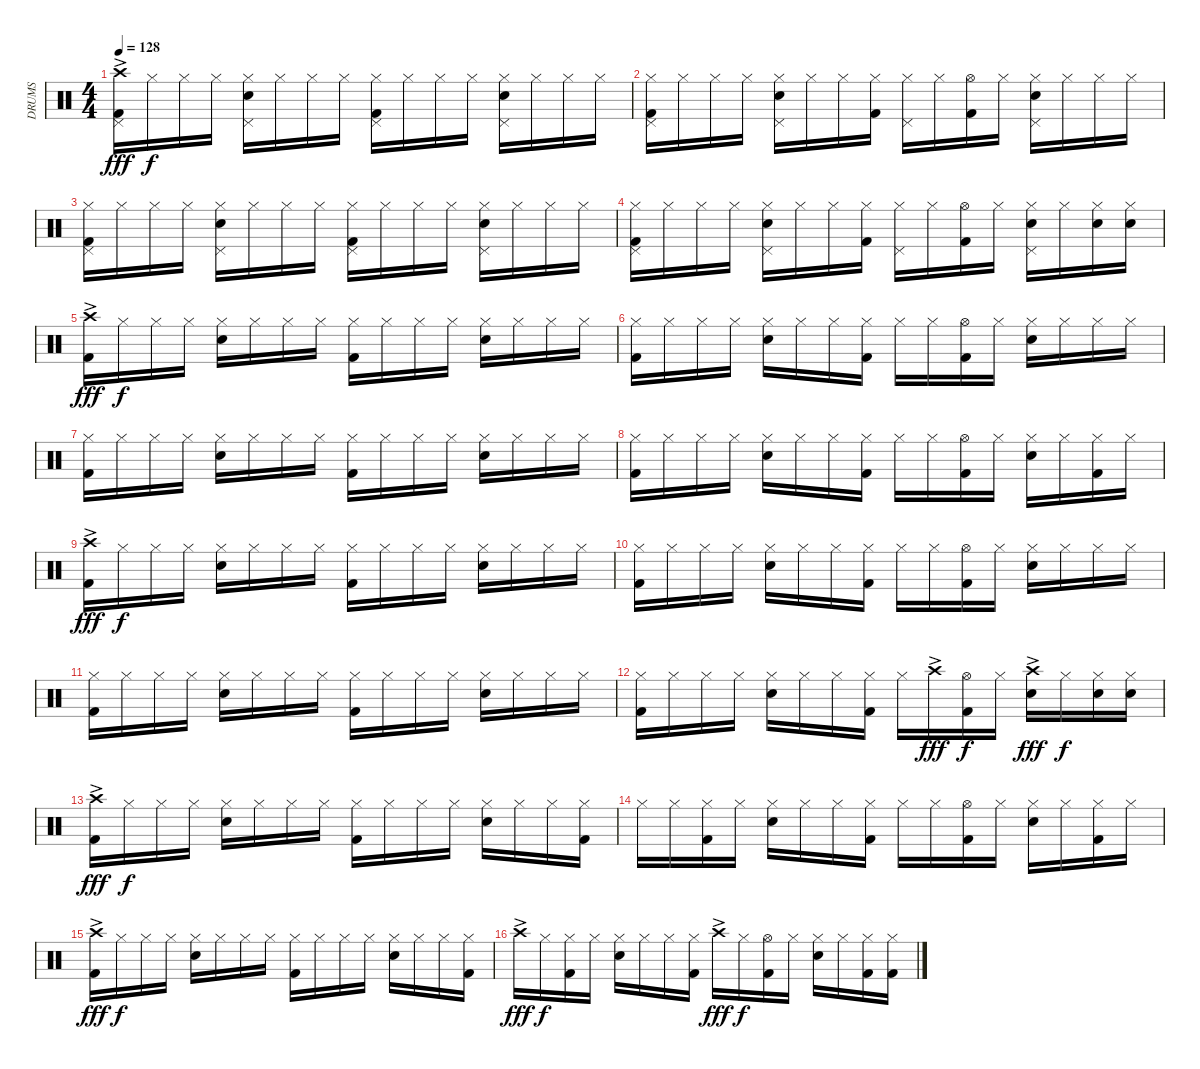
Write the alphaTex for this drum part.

\track ("DRUMS" "DRUMS") {instrument percussion}
\staff {score}
\articulation defaults
\ts (4 4)
\tempo 128
\clef neutral
\ks c
("Crash high (hit)"{ac} "Pedal Hi-Hat (hit)" "Kick (hit) 2").16{dy fff} "Hi-Hat (closed)".16{dy f} "Hi-Hat (closed)".16 "Hi-Hat (closed)".16 ("Hi-Hat (closed)" "Pedal Hi-Hat (hit)" "Snare (hit) 2").16 "Hi-Hat (closed)".16 "Hi-Hat (closed)".16 "Hi-Hat (closed)".16 ("Hi-Hat (closed)" "Pedal Hi-Hat (hit)" "Kick (hit) 2").16 "Hi-Hat (closed)".16 "Hi-Hat (closed)".16 "Hi-Hat (closed)".16 ("Hi-Hat (closed)" "Pedal Hi-Hat (hit)" "Snare (hit) 2").16 "Hi-Hat (closed)".16 "Hi-Hat (closed)".16 "Hi-Hat (closed)".16 |
("Hi-Hat (closed)" "Pedal Hi-Hat (hit)" "Kick (hit) 2").16 "Hi-Hat (closed)".16 "Hi-Hat (closed)".16 "Hi-Hat (closed)".16 ("Hi-Hat (closed)" "Pedal Hi-Hat (hit)" "Snare (hit) 2").16 "Hi-Hat (closed)".16 "Hi-Hat (closed)".16 ("Hi-Hat (closed)" "Kick (hit) 2").16 ("Hi-Hat (closed)" "Pedal Hi-Hat (hit)").16 "Hi-Hat (closed)".16 ("Hi-Hat (open)" "Kick (hit) 2").16 "Hi-Hat (closed)".16 ("Hi-Hat (closed)" "Pedal Hi-Hat (hit)" "Snare (hit) 2").16 "Hi-Hat (closed)".16 "Hi-Hat (closed)".16 "Hi-Hat (closed)".16 |
("Hi-Hat (closed)" "Pedal Hi-Hat (hit)" "Kick (hit) 2").16 "Hi-Hat (closed)".16 "Hi-Hat (closed)".16 "Hi-Hat (closed)".16 ("Hi-Hat (closed)" "Pedal Hi-Hat (hit)" "Snare (hit) 2").16 "Hi-Hat (closed)".16 "Hi-Hat (closed)".16 "Hi-Hat (closed)".16 ("Hi-Hat (closed)" "Pedal Hi-Hat (hit)" "Kick (hit) 2").16 "Hi-Hat (closed)".16 "Hi-Hat (closed)".16 "Hi-Hat (closed)".16 ("Hi-Hat (closed)" "Pedal Hi-Hat (hit)" "Snare (hit) 2").16 "Hi-Hat (closed)".16 "Hi-Hat (closed)".16 "Hi-Hat (closed)".16 |
("Hi-Hat (closed)" "Pedal Hi-Hat (hit)" "Kick (hit) 2").16 "Hi-Hat (closed)".16 "Hi-Hat (closed)".16 "Hi-Hat (closed)".16 ("Hi-Hat (closed)" "Pedal Hi-Hat (hit)" "Snare (hit) 2").16 "Hi-Hat (closed)".16 "Hi-Hat (closed)".16 ("Hi-Hat (closed)" "Kick (hit) 2").16 ("Hi-Hat (closed)" "Pedal Hi-Hat (hit)").16 "Hi-Hat (closed)".16 ("Hi-Hat (open)" "Kick (hit) 2").16 "Hi-Hat (closed)".16 ("Hi-Hat (closed)" "Pedal Hi-Hat (hit)" "Snare (hit) 2").16 "Hi-Hat (closed)".16 ("Hi-Hat (closed)" "Snare (hit) 2").16 ("Hi-Hat (closed)" "Snare (hit) 2").16 |
("Crash high (hit)"{ac} "Kick (hit) 2").16{dy fff} "Hi-Hat (closed)".16{dy f} "Hi-Hat (closed)".16 "Hi-Hat (closed)".16 ("Hi-Hat (closed)" "Snare (hit) 2").16 "Hi-Hat (closed)".16 "Hi-Hat (closed)".16 "Hi-Hat (closed)".16 ("Hi-Hat (closed)" "Kick (hit) 2").16 "Hi-Hat (closed)".16 "Hi-Hat (closed)".16 "Hi-Hat (closed)".16 ("Hi-Hat (closed)" "Snare (hit) 2").16 "Hi-Hat (closed)".16 "Hi-Hat (closed)".16 "Hi-Hat (closed)".16 |
("Hi-Hat (closed)" "Kick (hit) 2").16 "Hi-Hat (closed)".16 "Hi-Hat (closed)".16 "Hi-Hat (closed)".16 ("Hi-Hat (closed)" "Snare (hit) 2").16 "Hi-Hat (closed)".16 "Hi-Hat (closed)".16 ("Hi-Hat (closed)" "Kick (hit) 2").16 "Hi-Hat (closed)".16 "Hi-Hat (closed)".16 ("Hi-Hat (open)" "Kick (hit) 2").16 "Hi-Hat (closed)".16 ("Hi-Hat (closed)" "Snare (hit) 2").16 "Hi-Hat (closed)".16 "Hi-Hat (closed)".16 "Hi-Hat (closed)".16 |
("Hi-Hat (closed)" "Kick (hit) 2").16 "Hi-Hat (closed)".16 "Hi-Hat (closed)".16 "Hi-Hat (closed)".16 ("Hi-Hat (closed)" "Snare (hit) 2").16 "Hi-Hat (closed)".16 "Hi-Hat (closed)".16 "Hi-Hat (closed)".16 ("Hi-Hat (closed)" "Kick (hit) 2").16 "Hi-Hat (closed)".16 "Hi-Hat (closed)".16 "Hi-Hat (closed)".16 ("Hi-Hat (closed)" "Snare (hit) 2").16 "Hi-Hat (closed)".16 "Hi-Hat (closed)".16 "Hi-Hat (closed)".16 |
("Hi-Hat (closed)" "Kick (hit) 2").16 "Hi-Hat (closed)".16 "Hi-Hat (closed)".16 "Hi-Hat (closed)".16 ("Hi-Hat (closed)" "Snare (hit) 2").16 "Hi-Hat (closed)".16 "Hi-Hat (closed)".16 ("Hi-Hat (closed)" "Kick (hit) 2").16 "Hi-Hat (closed)".16 "Hi-Hat (closed)".16 ("Hi-Hat (open)" "Kick (hit) 2").16 "Hi-Hat (closed)".16 ("Hi-Hat (closed)" "Snare (hit) 2").16 "Hi-Hat (closed)".16 ("Hi-Hat (closed)" "Kick (hit) 2").16 "Hi-Hat (closed)".16 |
("Crash high (hit)"{ac} "Kick (hit) 2").16{dy fff} "Hi-Hat (closed)".16{dy f} "Hi-Hat (closed)".16 "Hi-Hat (closed)".16 ("Hi-Hat (closed)" "Snare (hit) 2").16 "Hi-Hat (closed)".16 "Hi-Hat (closed)".16 "Hi-Hat (closed)".16 ("Hi-Hat (closed)" "Kick (hit) 2").16 "Hi-Hat (closed)".16 "Hi-Hat (closed)".16 "Hi-Hat (closed)".16 ("Hi-Hat (closed)" "Snare (hit) 2").16 "Hi-Hat (closed)".16 "Hi-Hat (closed)".16 "Hi-Hat (closed)".16 |
("Hi-Hat (closed)" "Kick (hit) 2").16 "Hi-Hat (closed)".16 "Hi-Hat (closed)".16 "Hi-Hat (closed)".16 ("Hi-Hat (closed)" "Snare (hit) 2").16 "Hi-Hat (closed)".16 "Hi-Hat (closed)".16 ("Hi-Hat (closed)" "Kick (hit) 2").16 "Hi-Hat (closed)".16 "Hi-Hat (closed)".16 ("Hi-Hat (open)" "Kick (hit) 2").16 "Hi-Hat (closed)".16 ("Hi-Hat (closed)" "Snare (hit) 2").16 "Hi-Hat (closed)".16 "Hi-Hat (closed)".16 "Hi-Hat (closed)".16 |
("Hi-Hat (closed)" "Kick (hit) 2").16 "Hi-Hat (closed)".16 "Hi-Hat (closed)".16 "Hi-Hat (closed)".16 ("Hi-Hat (closed)" "Snare (hit) 2").16 "Hi-Hat (closed)".16 "Hi-Hat (closed)".16 "Hi-Hat (closed)".16 ("Hi-Hat (closed)" "Kick (hit) 2").16 "Hi-Hat (closed)".16 "Hi-Hat (closed)".16 "Hi-Hat (closed)".16 ("Hi-Hat (closed)" "Snare (hit) 2").16 "Hi-Hat (closed)".16 "Hi-Hat (closed)".16 "Hi-Hat (closed)".16 |
("Hi-Hat (closed)" "Kick (hit) 2").16 "Hi-Hat (closed)".16 "Hi-Hat (closed)".16 "Hi-Hat (closed)".16 ("Hi-Hat (closed)" "Snare (hit) 2").16 "Hi-Hat (closed)".16 "Hi-Hat (closed)".16 ("Hi-Hat (closed)" "Kick (hit) 2").16 "Hi-Hat (closed)".16 "Crash high (hit)"{ac}.16{dy fff} ("Hi-Hat (open)" "Kick (hit) 2").16{dy f} "Hi-Hat (closed)".16 ("Crash high (hit)"{ac} "Snare (hit) 2").16{dy fff} "Hi-Hat (closed)".16{dy f} ("Hi-Hat (closed)" "Snare (hit) 2").16 ("Hi-Hat (closed)" "Snare (hit) 2").16 |
("Crash high (hit)"{ac} "Kick (hit) 2").16{dy fff} "Hi-Hat (closed)".16{dy f} "Hi-Hat (closed)".16 "Hi-Hat (closed)".16 ("Hi-Hat (closed)" "Snare (hit) 2").16 "Hi-Hat (closed)".16 "Hi-Hat (closed)".16 "Hi-Hat (closed)".16 ("Hi-Hat (closed)" "Kick (hit) 2").16 "Hi-Hat (closed)".16 "Hi-Hat (closed)".16 "Hi-Hat (closed)".16 ("Hi-Hat (closed)" "Snare (hit) 2").16 "Hi-Hat (closed)".16 "Hi-Hat (closed)".16 ("Hi-Hat (closed)" "Kick (hit) 2").16 |
"Hi-Hat (closed)".16 "Hi-Hat (closed)".16 ("Hi-Hat (closed)" "Kick (hit) 2").16 "Hi-Hat (closed)".16 ("Hi-Hat (closed)" "Snare (hit) 2").16 "Hi-Hat (closed)".16 "Hi-Hat (closed)".16 ("Hi-Hat (closed)" "Kick (hit) 2").16 "Hi-Hat (closed)".16 "Hi-Hat (closed)".16 ("Hi-Hat (open)" "Kick (hit) 2").16 "Hi-Hat (closed)".16 ("Hi-Hat (closed)" "Snare (hit) 2").16 "Hi-Hat (closed)".16 ("Hi-Hat (closed)" "Kick (hit) 2").16 "Hi-Hat (closed)".16 |
("Crash high (hit)"{ac} "Kick (hit) 2").16{dy fff} "Hi-Hat (closed)".16{dy f} "Hi-Hat (closed)".16 "Hi-Hat (closed)".16 ("Hi-Hat (closed)" "Snare (hit) 2").16 "Hi-Hat (closed)".16 "Hi-Hat (closed)".16 "Hi-Hat (closed)".16 ("Hi-Hat (closed)" "Kick (hit) 2").16 "Hi-Hat (closed)".16 "Hi-Hat (closed)".16 "Hi-Hat (closed)".16 ("Hi-Hat (closed)" "Snare (hit) 2").16 "Hi-Hat (closed)".16 "Hi-Hat (closed)".16 ("Hi-Hat (closed)" "Kick (hit) 2").16 |
"Crash high (hit)"{ac}.16{dy fff} "Hi-Hat (closed)".16{dy f} ("Hi-Hat (closed)" "Kick (hit) 2").16 "Hi-Hat (closed)".16 ("Hi-Hat (closed)" "Snare (hit) 2").16 "Hi-Hat (closed)".16 "Hi-Hat (closed)".16 ("Hi-Hat (closed)" "Kick (hit) 2").16 "Crash high (hit)"{ac}.16{dy fff} "Hi-Hat (closed)".16{dy f} ("Hi-Hat (open)" "Kick (hit) 2").16 "Hi-Hat (closed)".16 ("Hi-Hat (closed)" "Snare (hit) 2").16 "Hi-Hat (closed)".16 ("Hi-Hat (closed)" "Kick (hit) 2").16 ("Hi-Hat (closed)" "Kick (hit) 2").16
